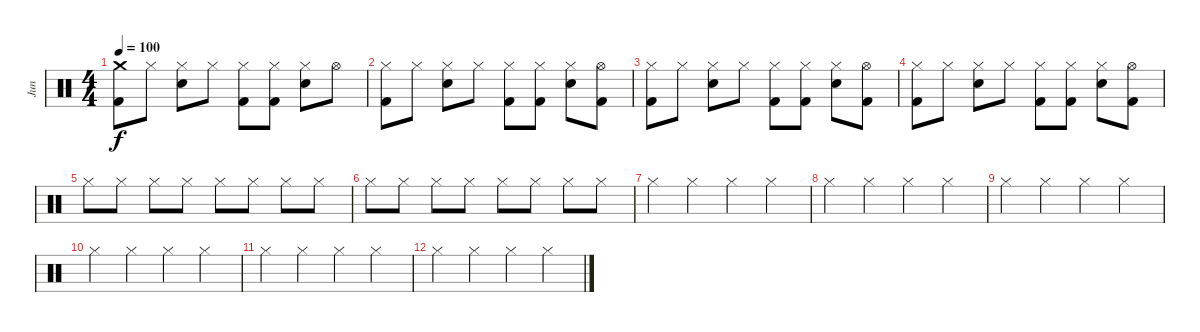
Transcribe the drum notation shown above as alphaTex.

\track ("Jun " "Jun ") {instrument percussion}
\staff {score}
\articulation defaults
\ts (4 4)
\tempo 100
\clef neutral
\ks c
("Crash medium (hit)" "Kick (hit) 2").8{dy f} "Hi-Hat (closed)".8 ("Hi-Hat (closed)" "Snare (hit) 2").8 "Hi-Hat (closed)".8 ("Hi-Hat (closed)" "Kick (hit) 2").8 ("Hi-Hat (closed)" "Kick (hit) 2").8 ("Hi-Hat (closed)" "Snare (hit) 2").8 "Hi-Hat (open)".8 |
("Hi-Hat (closed)" "Kick (hit) 2").8 "Hi-Hat (closed)".8 ("Hi-Hat (closed)" "Snare (hit) 2").8 "Hi-Hat (closed)".8 ("Hi-Hat (closed)" "Kick (hit) 2").8 ("Hi-Hat (closed)" "Kick (hit) 2").8 ("Hi-Hat (closed)" "Snare (hit) 2").8 ("Hi-Hat (open)" "Kick (hit) 2").8 |
("Hi-Hat (closed)" "Kick (hit) 2").8 "Hi-Hat (closed)".8 ("Hi-Hat (closed)" "Snare (hit) 2").8 "Hi-Hat (closed)".8 ("Hi-Hat (closed)" "Kick (hit) 2").8 ("Hi-Hat (closed)" "Kick (hit) 2").8 ("Hi-Hat (closed)" "Snare (hit) 2").8 ("Hi-Hat (open)" "Kick (hit) 2").8 |
("Hi-Hat (closed)" "Kick (hit) 2").8 "Hi-Hat (closed)".8 ("Hi-Hat (closed)" "Snare (hit) 2").8 "Hi-Hat (closed)".8 ("Hi-Hat (closed)" "Kick (hit) 2").8 ("Hi-Hat (closed)" "Kick (hit) 2").8 ("Hi-Hat (closed)" "Snare (hit) 2").8 ("Hi-Hat (open)" "Kick (hit) 2").8 |
"Hi-Hat (closed)".8 "Hi-Hat (closed)".8 "Hi-Hat (closed)".8 "Hi-Hat (closed)".8 "Hi-Hat (closed)".8 "Hi-Hat (closed)".8 "Hi-Hat (closed)".8 "Hi-Hat (closed)".8 |
"Hi-Hat (closed)".8 "Hi-Hat (closed)".8 "Hi-Hat (closed)".8 "Hi-Hat (closed)".8 "Hi-Hat (closed)".8 "Hi-Hat (closed)".8 "Hi-Hat (closed)".8 "Hi-Hat (closed)".8 |
"Hi-Hat (closed)".4 "Hi-Hat (closed)".4 "Hi-Hat (closed)".4 "Hi-Hat (closed)".4 |
"Hi-Hat (closed)".4 "Hi-Hat (closed)".4 "Hi-Hat (closed)".4 "Hi-Hat (closed)".4 |
"Hi-Hat (closed)".4 "Hi-Hat (closed)".4 "Hi-Hat (closed)".4 "Hi-Hat (closed)".4 |
"Hi-Hat (closed)".4 "Hi-Hat (closed)".4 "Hi-Hat (closed)".4 "Hi-Hat (closed)".4 |
"Hi-Hat (closed)".4 "Hi-Hat (closed)".4 "Hi-Hat (closed)".4 "Hi-Hat (closed)".4 |
"Hi-Hat (closed)".4 "Hi-Hat (closed)".4 "Hi-Hat (closed)".4 "Hi-Hat (closed)".4
